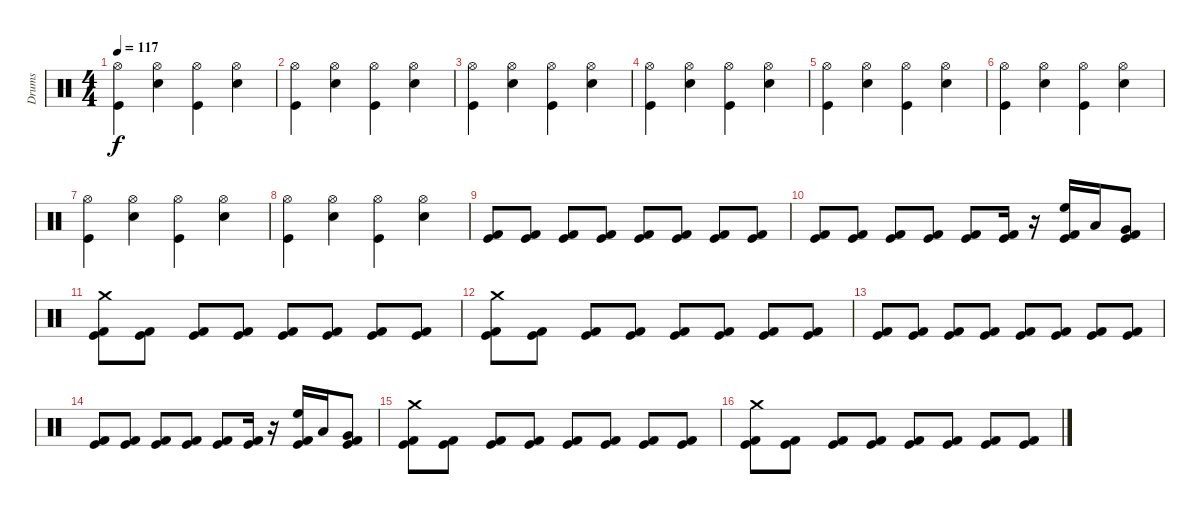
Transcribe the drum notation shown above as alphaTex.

\track ("Drums" "Drums") {instrument percussion}
\staff {score}
\articulation defaults
\ts (4 4)
\tempo 117
\clef neutral
\ks c
("Hi-Hat (open)" "Kick (hit)").4{dy f} ("Hi-Hat (open)" "Electric Snare (hit)").4 ("Hi-Hat (open)" "Kick (hit)").4 ("Hi-Hat (open)" "Electric Snare (hit)").4 |
("Hi-Hat (open)" "Kick (hit)").4 ("Hi-Hat (open)" "Electric Snare (hit)").4 ("Hi-Hat (open)" "Kick (hit)").4 ("Hi-Hat (open)" "Electric Snare (hit)").4 |
("Hi-Hat (open)" "Kick (hit)").4 ("Hi-Hat (open)" "Electric Snare (hit)").4 ("Hi-Hat (open)" "Kick (hit)").4 ("Hi-Hat (open)" "Electric Snare (hit)").4 |
("Hi-Hat (open)" "Kick (hit)").4 ("Hi-Hat (open)" "Electric Snare (hit)").4 ("Hi-Hat (open)" "Kick (hit)").4 ("Hi-Hat (open)" "Electric Snare (hit)").4 |
("Hi-Hat (open)" "Kick (hit)").4 ("Hi-Hat (open)" "Electric Snare (hit)").4 ("Hi-Hat (open)" "Kick (hit)").4 ("Hi-Hat (open)" "Electric Snare (hit)").4 |
("Hi-Hat (open)" "Kick (hit)").4 ("Hi-Hat (open)" "Electric Snare (hit)").4 ("Hi-Hat (open)" "Kick (hit)").4 ("Hi-Hat (open)" "Electric Snare (hit)").4 |
("Hi-Hat (open)" "Kick (hit)").4 ("Hi-Hat (open)" "Electric Snare (hit)").4 ("Hi-Hat (open)" "Kick (hit)").4 ("Hi-Hat (open)" "Electric Snare (hit)").4 |
("Hi-Hat (open)" "Kick (hit)").4 ("Hi-Hat (open)" "Electric Snare (hit)").4 ("Hi-Hat (open)" "Kick (hit)").4 ("Hi-Hat (open)" "Electric Snare (hit)").4 |
("Kick (hit) 2" "Kick (hit)").8 ("Kick (hit) 2" "Kick (hit)").8 ("Kick (hit) 2" "Kick (hit)").8 ("Kick (hit) 2" "Kick (hit)").8 ("Kick (hit) 2" "Kick (hit)").8 ("Kick (hit) 2" "Kick (hit)").8 ("Kick (hit) 2" "Kick (hit)").8 ("Kick (hit) 2" "Kick (hit)").8 |
("Kick (hit) 2" "Kick (hit)").8 ("Kick (hit) 2" "Kick (hit)").8 ("Kick (hit) 2" "Kick (hit)").8 ("Kick (hit) 2" "Kick (hit)").8 ("Kick (hit) 2" "Kick (hit)").8 ("Kick (hit) 2" "Kick (hit)").16 r.16 ("High Floor Tom (hit)" "Kick (hit) 2" "Kick (hit)").16 "Low Tom (hit)".16 ("Very Low Tom (hit)" "Kick (hit) 2" "Kick (hit)").8 |
("Crash medium (hit)" "Kick (hit) 2" "Kick (hit)").8 ("Kick (hit) 2" "Kick (hit)").8 ("Kick (hit) 2" "Kick (hit)").8 ("Kick (hit) 2" "Kick (hit)").8 ("Kick (hit) 2" "Kick (hit)").8 ("Kick (hit) 2" "Kick (hit)").8 ("Kick (hit) 2" "Kick (hit)").8 ("Kick (hit) 2" "Kick (hit)").8 |
("Crash medium (hit)" "Kick (hit) 2" "Kick (hit)").8 ("Kick (hit) 2" "Kick (hit)").8 ("Kick (hit) 2" "Kick (hit)").8 ("Kick (hit) 2" "Kick (hit)").8 ("Kick (hit) 2" "Kick (hit)").8 ("Kick (hit) 2" "Kick (hit)").8 ("Kick (hit) 2" "Kick (hit)").8 ("Kick (hit) 2" "Kick (hit)").8 |
("Kick (hit) 2" "Kick (hit)").8 ("Kick (hit) 2" "Kick (hit)").8 ("Kick (hit) 2" "Kick (hit)").8 ("Kick (hit) 2" "Kick (hit)").8 ("Kick (hit) 2" "Kick (hit)").8 ("Kick (hit) 2" "Kick (hit)").8 ("Kick (hit) 2" "Kick (hit)").8 ("Kick (hit) 2" "Kick (hit)").8 |
("Kick (hit) 2" "Kick (hit)").8 ("Kick (hit) 2" "Kick (hit)").8 ("Kick (hit) 2" "Kick (hit)").8 ("Kick (hit) 2" "Kick (hit)").8 ("Kick (hit) 2" "Kick (hit)").8 ("Kick (hit) 2" "Kick (hit)").16 r.16 ("High Floor Tom (hit)" "Kick (hit) 2" "Kick (hit)").16 "Low Tom (hit)".16 ("Very Low Tom (hit)" "Kick (hit) 2" "Kick (hit)").8 |
("Crash medium (hit)" "Kick (hit) 2" "Kick (hit)").8 ("Kick (hit) 2" "Kick (hit)").8 ("Kick (hit) 2" "Kick (hit)").8 ("Kick (hit) 2" "Kick (hit)").8 ("Kick (hit) 2" "Kick (hit)").8 ("Kick (hit) 2" "Kick (hit)").8 ("Kick (hit) 2" "Kick (hit)").8 ("Kick (hit) 2" "Kick (hit)").8 |
("Crash medium (hit)" "Kick (hit) 2" "Kick (hit)").8 ("Kick (hit) 2" "Kick (hit)").8 ("Kick (hit) 2" "Kick (hit)").8 ("Kick (hit) 2" "Kick (hit)").8 ("Kick (hit) 2" "Kick (hit)").8 ("Kick (hit) 2" "Kick (hit)").8 ("Kick (hit) 2" "Kick (hit)").8 ("Kick (hit) 2" "Kick (hit)").8
